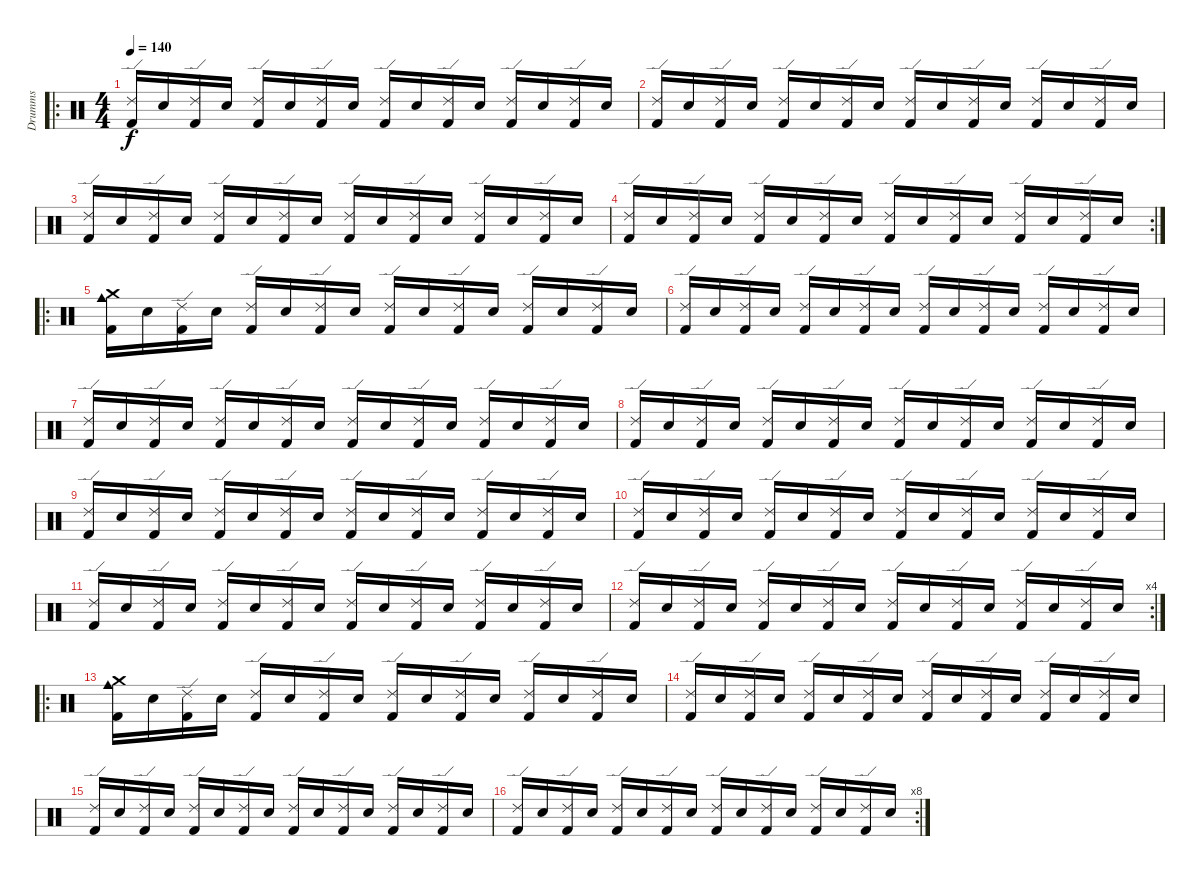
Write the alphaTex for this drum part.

\track ("Drumms" "Drumms") {instrument percussion}
\staff {score}
\articulation defaults
\ro
\ts (4 4)
\tempo 140
\clef neutral
\ks c
("Kick (hit) 2" "Ride (edge) 2").16{dy f} "Snare (hit) 2".16 ("Kick (hit) 2" "Ride (edge) 2").16 "Snare (hit) 2".16 ("Kick (hit) 2" "Ride (edge) 2").16 "Snare (hit) 2".16 ("Kick (hit) 2" "Ride (edge) 2").16 "Snare (hit) 2".16 ("Kick (hit) 2" "Ride (edge) 2").16 "Snare (hit) 2".16 ("Kick (hit) 2" "Ride (edge) 2").16 "Snare (hit) 2".16 ("Kick (hit) 2" "Ride (edge) 2").16 "Snare (hit) 2".16 ("Kick (hit) 2" "Ride (edge) 2").16 "Snare (hit) 2".16 |
("Kick (hit) 2" "Ride (edge) 2").16 "Snare (hit) 2".16 ("Kick (hit) 2" "Ride (edge) 2").16 "Snare (hit) 2".16 ("Kick (hit) 2" "Ride (edge) 2").16 "Snare (hit) 2".16 ("Kick (hit) 2" "Ride (edge) 2").16 "Snare (hit) 2".16 ("Kick (hit) 2" "Ride (edge) 2").16 "Snare (hit) 2".16 ("Kick (hit) 2" "Ride (edge) 2").16 "Snare (hit) 2".16 ("Kick (hit) 2" "Ride (edge) 2").16 "Snare (hit) 2".16 ("Kick (hit) 2" "Ride (edge) 2").16 "Snare (hit) 2".16 |
("Kick (hit) 2" "Ride (edge) 2").16 "Snare (hit) 2".16 ("Kick (hit) 2" "Ride (edge) 2").16 "Snare (hit) 2".16 ("Kick (hit) 2" "Ride (edge) 2").16 "Snare (hit) 2".16 ("Kick (hit) 2" "Ride (edge) 2").16 "Snare (hit) 2".16 ("Kick (hit) 2" "Ride (edge) 2").16 "Snare (hit) 2".16 ("Kick (hit) 2" "Ride (edge) 2").16 "Snare (hit) 2".16 ("Kick (hit) 2" "Ride (edge) 2").16 "Snare (hit) 2".16 ("Kick (hit) 2" "Ride (edge) 2").16 "Snare (hit) 2".16 |
\rc 2
("Kick (hit) 2" "Ride (edge) 2").16 "Snare (hit) 2".16 ("Kick (hit) 2" "Ride (edge) 2").16 "Snare (hit) 2".16 ("Kick (hit) 2" "Ride (edge) 2").16 "Snare (hit) 2".16 ("Kick (hit) 2" "Ride (edge) 2").16 "Snare (hit) 2".16 ("Kick (hit) 2" "Ride (edge) 2").16 "Snare (hit) 2".16 ("Kick (hit) 2" "Ride (edge) 2").16 "Snare (hit) 2".16 ("Kick (hit) 2" "Ride (edge) 2").16 "Snare (hit) 2".16 ("Kick (hit) 2" "Ride (edge) 2").16 "Snare (hit) 2".16 |
\ro
("Kick (hit) 2" "Cowbell medium (hit)" "Crash medium (hit)").16 "Snare (hit) 2".16 ("Kick (hit) 2" "Ride (edge) 2").16 "Snare (hit) 2".16 ("Kick (hit) 2" "Ride (edge) 2").16 "Snare (hit) 2".16 ("Kick (hit) 2" "Ride (edge) 2").16 "Snare (hit) 2".16 ("Kick (hit) 2" "Ride (edge) 2").16 "Snare (hit) 2".16 ("Kick (hit) 2" "Ride (edge) 2").16 "Snare (hit) 2".16 ("Kick (hit) 2" "Ride (edge) 2").16 "Snare (hit) 2".16 ("Kick (hit) 2" "Ride (edge) 2").16 "Snare (hit) 2".16 |
("Kick (hit) 2" "Ride (edge) 2").16 "Snare (hit) 2".16 ("Kick (hit) 2" "Ride (edge) 2").16 "Snare (hit) 2".16 ("Kick (hit) 2" "Ride (edge) 2").16 "Snare (hit) 2".16 ("Kick (hit) 2" "Ride (edge) 2").16 "Snare (hit) 2".16 ("Kick (hit) 2" "Ride (edge) 2").16 "Snare (hit) 2".16 ("Kick (hit) 2" "Ride (edge) 2").16 "Snare (hit) 2".16 ("Kick (hit) 2" "Ride (edge) 2").16 "Snare (hit) 2".16 ("Kick (hit) 2" "Ride (edge) 2").16 "Snare (hit) 2".16 |
("Kick (hit) 2" "Ride (edge) 2").16 "Snare (hit) 2".16 ("Kick (hit) 2" "Ride (edge) 2").16 "Snare (hit) 2".16 ("Kick (hit) 2" "Ride (edge) 2").16 "Snare (hit) 2".16 ("Kick (hit) 2" "Ride (edge) 2").16 "Snare (hit) 2".16 ("Kick (hit) 2" "Ride (edge) 2").16 "Snare (hit) 2".16 ("Kick (hit) 2" "Ride (edge) 2").16 "Snare (hit) 2".16 ("Kick (hit) 2" "Ride (edge) 2").16 "Snare (hit) 2".16 ("Kick (hit) 2" "Ride (edge) 2").16 "Snare (hit) 2".16 |
("Kick (hit) 2" "Ride (edge) 2").16 "Snare (hit) 2".16 ("Kick (hit) 2" "Ride (edge) 2").16 "Snare (hit) 2".16 ("Kick (hit) 2" "Ride (edge) 2").16 "Snare (hit) 2".16 ("Kick (hit) 2" "Ride (edge) 2").16 "Snare (hit) 2".16 ("Kick (hit) 2" "Ride (edge) 2").16 "Snare (hit) 2".16 ("Kick (hit) 2" "Ride (edge) 2").16 "Snare (hit) 2".16 ("Kick (hit) 2" "Ride (edge) 2").16 "Snare (hit) 2".16 ("Kick (hit) 2" "Ride (edge) 2").16 "Snare (hit) 2".16 |
("Kick (hit) 2" "Ride (edge) 2").16 "Snare (hit) 2".16 ("Kick (hit) 2" "Ride (edge) 2").16 "Snare (hit) 2".16 ("Kick (hit) 2" "Ride (edge) 2").16 "Snare (hit) 2".16 ("Kick (hit) 2" "Ride (edge) 2").16 "Snare (hit) 2".16 ("Kick (hit) 2" "Ride (edge) 2").16 "Snare (hit) 2".16 ("Kick (hit) 2" "Ride (edge) 2").16 "Snare (hit) 2".16 ("Kick (hit) 2" "Ride (edge) 2").16 "Snare (hit) 2".16 ("Kick (hit) 2" "Ride (edge) 2").16 "Snare (hit) 2".16 |
("Kick (hit) 2" "Ride (edge) 2").16 "Snare (hit) 2".16 ("Kick (hit) 2" "Ride (edge) 2").16 "Snare (hit) 2".16 ("Kick (hit) 2" "Ride (edge) 2").16 "Snare (hit) 2".16 ("Kick (hit) 2" "Ride (edge) 2").16 "Snare (hit) 2".16 ("Kick (hit) 2" "Ride (edge) 2").16 "Snare (hit) 2".16 ("Kick (hit) 2" "Ride (edge) 2").16 "Snare (hit) 2".16 ("Kick (hit) 2" "Ride (edge) 2").16 "Snare (hit) 2".16 ("Kick (hit) 2" "Ride (edge) 2").16 "Snare (hit) 2".16 |
("Kick (hit) 2" "Ride (edge) 2").16 "Snare (hit) 2".16 ("Kick (hit) 2" "Ride (edge) 2").16 "Snare (hit) 2".16 ("Kick (hit) 2" "Ride (edge) 2").16 "Snare (hit) 2".16 ("Kick (hit) 2" "Ride (edge) 2").16 "Snare (hit) 2".16 ("Kick (hit) 2" "Ride (edge) 2").16 "Snare (hit) 2".16 ("Kick (hit) 2" "Ride (edge) 2").16 "Snare (hit) 2".16 ("Kick (hit) 2" "Ride (edge) 2").16 "Snare (hit) 2".16 ("Kick (hit) 2" "Ride (edge) 2").16 "Snare (hit) 2".16 |
\rc 4
("Kick (hit) 2" "Ride (edge) 2").16 "Snare (hit) 2".16 ("Kick (hit) 2" "Ride (edge) 2").16 "Snare (hit) 2".16 ("Kick (hit) 2" "Ride (edge) 2").16 "Snare (hit) 2".16 ("Kick (hit) 2" "Ride (edge) 2").16 "Snare (hit) 2".16 ("Kick (hit) 2" "Ride (edge) 2").16 "Snare (hit) 2".16 ("Kick (hit) 2" "Ride (edge) 2").16 "Snare (hit) 2".16 ("Kick (hit) 2" "Ride (edge) 2").16 "Snare (hit) 2".16 ("Kick (hit) 2" "Ride (edge) 2").16 "Snare (hit) 2".16 |
\ro
("Kick (hit) 2" "Cowbell medium (hit)" "Crash medium (hit)").16 "Snare (hit) 2".16 ("Kick (hit) 2" "Ride (edge) 2").16 "Snare (hit) 2".16 ("Kick (hit) 2" "Ride (edge) 2").16 "Snare (hit) 2".16 ("Kick (hit) 2" "Ride (edge) 2").16 "Snare (hit) 2".16 ("Kick (hit) 2" "Ride (edge) 2").16 "Snare (hit) 2".16 ("Kick (hit) 2" "Ride (edge) 2").16 "Snare (hit) 2".16 ("Kick (hit) 2" "Ride (edge) 2").16 "Snare (hit) 2".16 ("Kick (hit) 2" "Ride (edge) 2").16 "Snare (hit) 2".16 |
("Kick (hit) 2" "Ride (edge) 2").16 "Snare (hit) 2".16 ("Kick (hit) 2" "Ride (edge) 2").16 "Snare (hit) 2".16 ("Kick (hit) 2" "Ride (edge) 2").16 "Snare (hit) 2".16 ("Kick (hit) 2" "Ride (edge) 2").16 "Snare (hit) 2".16 ("Kick (hit) 2" "Ride (edge) 2").16 "Snare (hit) 2".16 ("Kick (hit) 2" "Ride (edge) 2").16 "Snare (hit) 2".16 ("Kick (hit) 2" "Ride (edge) 2").16 "Snare (hit) 2".16 ("Kick (hit) 2" "Ride (edge) 2").16 "Snare (hit) 2".16 |
("Kick (hit) 2" "Ride (edge) 2").16 "Snare (hit) 2".16 ("Kick (hit) 2" "Ride (edge) 2").16 "Snare (hit) 2".16 ("Kick (hit) 2" "Ride (edge) 2").16 "Snare (hit) 2".16 ("Kick (hit) 2" "Ride (edge) 2").16 "Snare (hit) 2".16 ("Kick (hit) 2" "Ride (edge) 2").16 "Snare (hit) 2".16 ("Kick (hit) 2" "Ride (edge) 2").16 "Snare (hit) 2".16 ("Kick (hit) 2" "Ride (edge) 2").16 "Snare (hit) 2".16 ("Kick (hit) 2" "Ride (edge) 2").16 "Snare (hit) 2".16 |
\rc 8
("Kick (hit) 2" "Ride (edge) 2").16 "Snare (hit) 2".16 ("Kick (hit) 2" "Ride (edge) 2").16 "Snare (hit) 2".16 ("Kick (hit) 2" "Ride (edge) 2").16 "Snare (hit) 2".16 ("Kick (hit) 2" "Ride (edge) 2").16 "Snare (hit) 2".16 ("Kick (hit) 2" "Ride (edge) 2").16 "Snare (hit) 2".16 ("Kick (hit) 2" "Ride (edge) 2").16 "Snare (hit) 2".16 ("Kick (hit) 2" "Ride (edge) 2").16 "Snare (hit) 2".16 ("Kick (hit) 2" "Ride (edge) 2").16 "Snare (hit) 2".16
